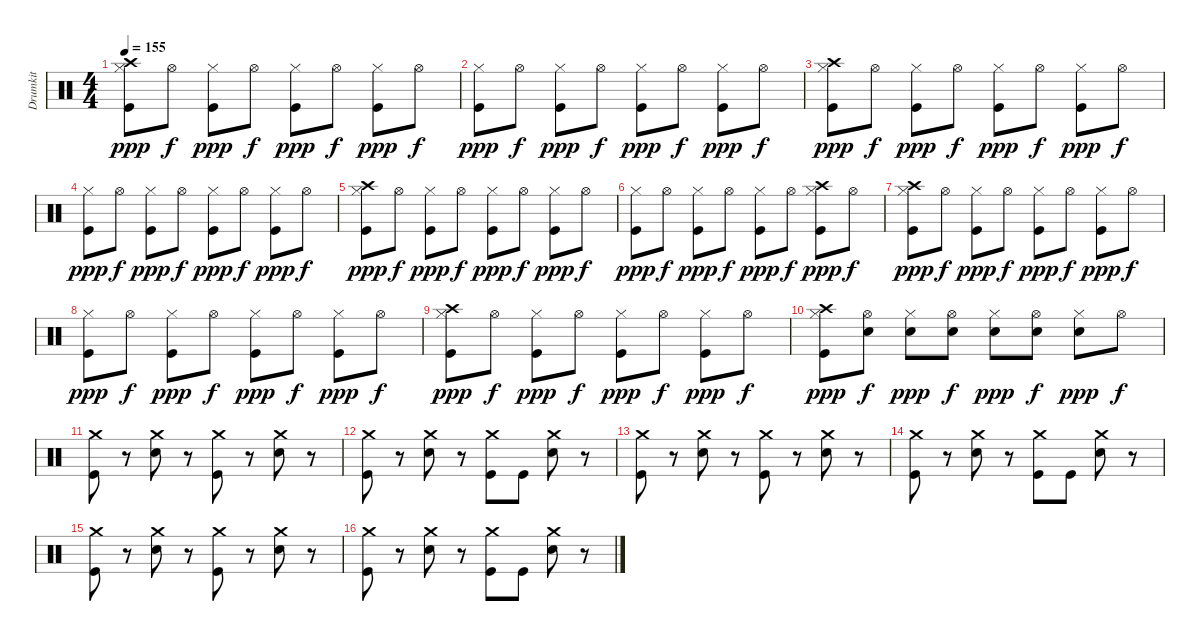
\track ("Drumkit" "Drumkit") {instrument percussion}
\staff {score}
\articulation defaults
\ts (4 4)
\tempo 155
\clef neutral
\ks c
("Hi-Hat (closed)" "Crash high (hit)" "Kick (hit)").8{dy ppp} "Hi-Hat (open)".8{dy f} ("Hi-Hat (closed)" "Kick (hit)").8{dy ppp} "Hi-Hat (open)".8{dy f} ("Hi-Hat (closed)" "Kick (hit)").8{dy ppp} "Hi-Hat (open)".8{dy f} ("Hi-Hat (closed)" "Kick (hit)").8{dy ppp} "Hi-Hat (open)".8{dy f} |
("Hi-Hat (closed)" "Kick (hit)").8{dy ppp} "Hi-Hat (open)".8{dy f} ("Hi-Hat (closed)" "Kick (hit)").8{dy ppp} "Hi-Hat (open)".8{dy f} ("Hi-Hat (closed)" "Kick (hit)").8{dy ppp} "Hi-Hat (open)".8{dy f} ("Hi-Hat (closed)" "Kick (hit)").8{dy ppp} "Hi-Hat (open)".8{dy f} |
("Hi-Hat (closed)" "Crash high (hit)" "Kick (hit)").8{dy ppp} "Hi-Hat (open)".8{dy f} ("Hi-Hat (closed)" "Kick (hit)").8{dy ppp} "Hi-Hat (open)".8{dy f} ("Hi-Hat (closed)" "Kick (hit)").8{dy ppp} "Hi-Hat (open)".8{dy f} ("Hi-Hat (closed)" "Kick (hit)").8{dy ppp} "Hi-Hat (open)".8{dy f} |
("Hi-Hat (closed)" "Kick (hit)").8{dy ppp} "Hi-Hat (open)".8{dy f} ("Hi-Hat (closed)" "Kick (hit)").8{dy ppp} "Hi-Hat (open)".8{dy f} ("Hi-Hat (closed)" "Kick (hit)").8{dy ppp} "Hi-Hat (open)".8{dy f} ("Hi-Hat (closed)" "Kick (hit)").8{dy ppp} "Hi-Hat (open)".8{dy f} |
("Hi-Hat (closed)" "Crash high (hit)" "Kick (hit)").8{dy ppp} "Hi-Hat (open)".8{dy f} ("Hi-Hat (closed)" "Kick (hit)").8{dy ppp} "Hi-Hat (open)".8{dy f} ("Hi-Hat (closed)" "Kick (hit)").8{dy ppp} "Hi-Hat (open)".8{dy f} ("Hi-Hat (closed)" "Kick (hit)").8{dy ppp} "Hi-Hat (open)".8{dy f} |
("Hi-Hat (closed)" "Kick (hit)").8{dy ppp} "Hi-Hat (open)".8{dy f} ("Hi-Hat (closed)" "Kick (hit)").8{dy ppp} "Hi-Hat (open)".8{dy f} ("Hi-Hat (closed)" "Kick (hit)").8{dy ppp} "Hi-Hat (open)".8{dy f} ("Hi-Hat (closed)" "Crash high (hit)" "Kick (hit)").8{dy ppp} "Hi-Hat (open)".8{dy f} |
("Hi-Hat (closed)" "Crash high (hit)" "Kick (hit)").8{dy ppp} "Hi-Hat (open)".8{dy f} ("Hi-Hat (closed)" "Kick (hit)").8{dy ppp} "Hi-Hat (open)".8{dy f} ("Hi-Hat (closed)" "Kick (hit)").8{dy ppp} "Hi-Hat (open)".8{dy f} ("Hi-Hat (closed)" "Kick (hit)").8{dy ppp} "Hi-Hat (open)".8{dy f} |
("Hi-Hat (closed)" "Kick (hit)").8{dy ppp} "Hi-Hat (open)".8{dy f} ("Hi-Hat (closed)" "Kick (hit)").8{dy ppp} "Hi-Hat (open)".8{dy f} ("Hi-Hat (closed)" "Kick (hit)").8{dy ppp} "Hi-Hat (open)".8{dy f} ("Hi-Hat (closed)" "Kick (hit)").8{dy ppp} "Hi-Hat (open)".8{dy f} |
("Hi-Hat (closed)" "Crash high (hit)" "Kick (hit)").8{dy ppp} "Hi-Hat (open)".8{dy f} ("Hi-Hat (closed)" "Kick (hit)").8{dy ppp} "Hi-Hat (open)".8{dy f} ("Hi-Hat (closed)" "Kick (hit)").8{dy ppp} "Hi-Hat (open)".8{dy f} ("Hi-Hat (closed)" "Kick (hit)").8{dy ppp} "Hi-Hat (open)".8{dy f} |
("Hi-Hat (closed)" "Crash high (hit)" "Kick (hit)").8{dy ppp} ("Hi-Hat (open)" "Snare (hit) 2").8{dy f} ("Hi-Hat (closed)" "Snare (hit) 2").8{dy ppp} ("Hi-Hat (open)" "Snare (hit) 2").8{dy f} ("Hi-Hat (closed)" "Snare (hit) 2").8{dy ppp} ("Hi-Hat (open)" "Snare (hit) 2").8{dy f} ("Hi-Hat (closed)" "Snare (hit) 2").8{dy ppp} "Hi-Hat (open)".8{dy f} |
("Crash medium (hit)" "Kick (hit)").8 r.8 ("Crash medium (hit)" "Snare (hit) 2").8 r.8 ("Crash medium (hit)" "Kick (hit)").8 r.8 ("Crash medium (hit)" "Snare (hit) 2").8 r.8 |
("Crash medium (hit)" "Kick (hit)").8 r.8 ("Crash medium (hit)" "Snare (hit) 2").8 r.8 ("Crash medium (hit)" "Kick (hit)").8 "Kick (hit)".8 ("Crash medium (hit)" "Snare (hit) 2").8 r.8 |
("Crash medium (hit)" "Kick (hit)").8 r.8 ("Crash medium (hit)" "Snare (hit) 2").8 r.8 ("Crash medium (hit)" "Kick (hit)").8 r.8 ("Crash medium (hit)" "Snare (hit) 2").8 r.8 |
("Crash medium (hit)" "Kick (hit)").8 r.8 ("Crash medium (hit)" "Snare (hit) 2").8 r.8 ("Crash medium (hit)" "Kick (hit)").8 "Kick (hit)".8 ("Crash medium (hit)" "Snare (hit) 2").8 r.8 |
("Crash medium (hit)" "Kick (hit)").8 r.8 ("Crash medium (hit)" "Snare (hit) 2").8 r.8 ("Crash medium (hit)" "Kick (hit)").8 r.8 ("Crash medium (hit)" "Snare (hit) 2").8 r.8 |
("Crash medium (hit)" "Kick (hit)").8 r.8 ("Crash medium (hit)" "Snare (hit) 2").8 r.8 ("Crash medium (hit)" "Kick (hit)").8 "Kick (hit)".8 ("Crash medium (hit)" "Snare (hit) 2").8 r.8
